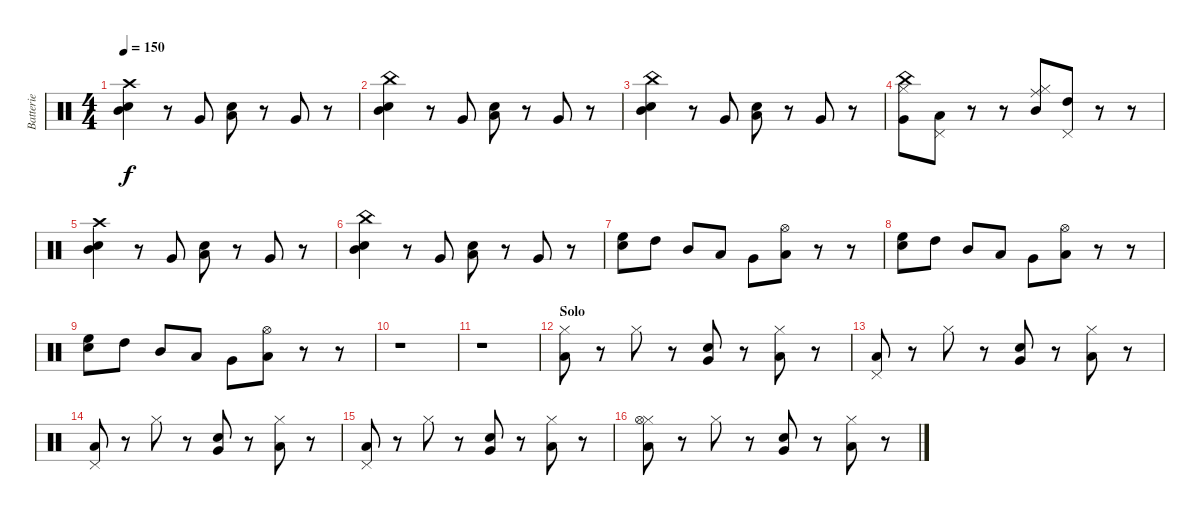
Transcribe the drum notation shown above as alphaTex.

\track ("Batterie" "Batterie") {instrument percussion}
\staff {score}
\articulation defaults
\ts (4 4)
\tempo 150
\clef neutral
\ks c
("Mid Tom (hit)" "Electric Snare (hit)" "Crash high (hit)").4{dy f} r.8 "Very Low Tom (hit)".8 ("Low Tom (hit)" "Electric Snare (hit)").8 r.8 "Very Low Tom (hit)".8 r.8 |
("Mid Tom (hit)" "Electric Snare (hit)" "China (hit)").4 r.8 "Very Low Tom (hit)".8 ("Low Tom (hit)" "Electric Snare (hit)").8 r.8 "Very Low Tom (hit)".8 r.8 |
("Mid Tom (hit)" "Electric Snare (hit)" "China (hit)").4 r.8 "Very Low Tom (hit)".8 ("Low Tom (hit)" "Electric Snare (hit)").8 r.8 "Very Low Tom (hit)".8 r.8 |
("Hi-Hat (closed)" "Very Low Tom (hit)" "China (hit)").8 ("Pedal Hi-Hat (hit)" "Low Tom (hit)").8 r.8 r.8 ("Hi-Hat (closed)" "Mid Tom (hit)" "Ride (middle)").8 ("Pedal Hi-Hat (hit)" "High Tom (hit)").8 r.8 r.8 |
("Mid Tom (hit)" "Electric Snare (hit)" "Crash high (hit)").4 r.8 "Very Low Tom (hit)".8 ("Low Tom (hit)" "Electric Snare (hit)").8 r.8 "Very Low Tom (hit)".8 r.8 |
("Mid Tom (hit)" "Electric Snare (hit)" "China (hit)").4 r.8 "Very Low Tom (hit)".8 ("Low Tom (hit)" "Electric Snare (hit)").8 r.8 "Very Low Tom (hit)".8 r.8 |
("High Floor Tom (hit)" "Electric Snare (hit)").8 "High Tom (hit)".8 "Mid Tom (hit)".8 "Low Tom (hit)".8 "Very Low Tom (hit)".8 ("Low Floor Tom (hit)" "Hi-Hat (open)").8 r.8 r.8 |
("High Floor Tom (hit)" "Electric Snare (hit)").8 "High Tom (hit)".8 "Mid Tom (hit)".8 "Low Tom (hit)".8 "Very Low Tom (hit)".8 ("Low Floor Tom (hit)" "Hi-Hat (open)").8 r.8 r.8 |
("High Floor Tom (hit)" "Electric Snare (hit)").8 "High Tom (hit)".8 "Mid Tom (hit)".8 "Low Tom (hit)".8 "Very Low Tom (hit)".8 ("Low Floor Tom (hit)" "Hi-Hat (open)").8 r.8 r.8 |
r.1 |
r.1 |
\section ("" "Solo")
("Low Floor Tom (hit)" "Hi-Hat (closed)").8 r.8 "Hi-Hat (closed)".8 r.8 ("Very Low Tom (hit)" "Snare (hit) 2").8 r.8 ("Low Floor Tom (hit)" "Hi-Hat (closed)").8 r.8 |
("Low Floor Tom (hit)" "Pedal Hi-Hat (hit)").8 r.8 "Hi-Hat (closed)".8 r.8 ("Very Low Tom (hit)" "Snare (hit) 2").8 r.8 ("Low Floor Tom (hit)" "Hi-Hat (closed)").8 r.8 |
("Low Floor Tom (hit)" "Pedal Hi-Hat (hit)").8 r.8 "Hi-Hat (closed)".8 r.8 ("Very Low Tom (hit)" "Snare (hit) 2").8 r.8 ("Low Floor Tom (hit)" "Hi-Hat (closed)").8 r.8 |
("Low Floor Tom (hit)" "Pedal Hi-Hat (hit)").8 r.8 "Hi-Hat (closed)".8 r.8 ("Very Low Tom (hit)" "Snare (hit) 2").8 r.8 ("Low Floor Tom (hit)" "Hi-Hat (closed)").8 r.8 |
("Low Floor Tom (hit)" "Hi-Hat (closed)" "Hi-Hat (open)").8 r.8 "Hi-Hat (closed)".8 r.8 ("Very Low Tom (hit)" "Snare (hit) 2").8 r.8 ("Low Floor Tom (hit)" "Hi-Hat (closed)").8 r.8
